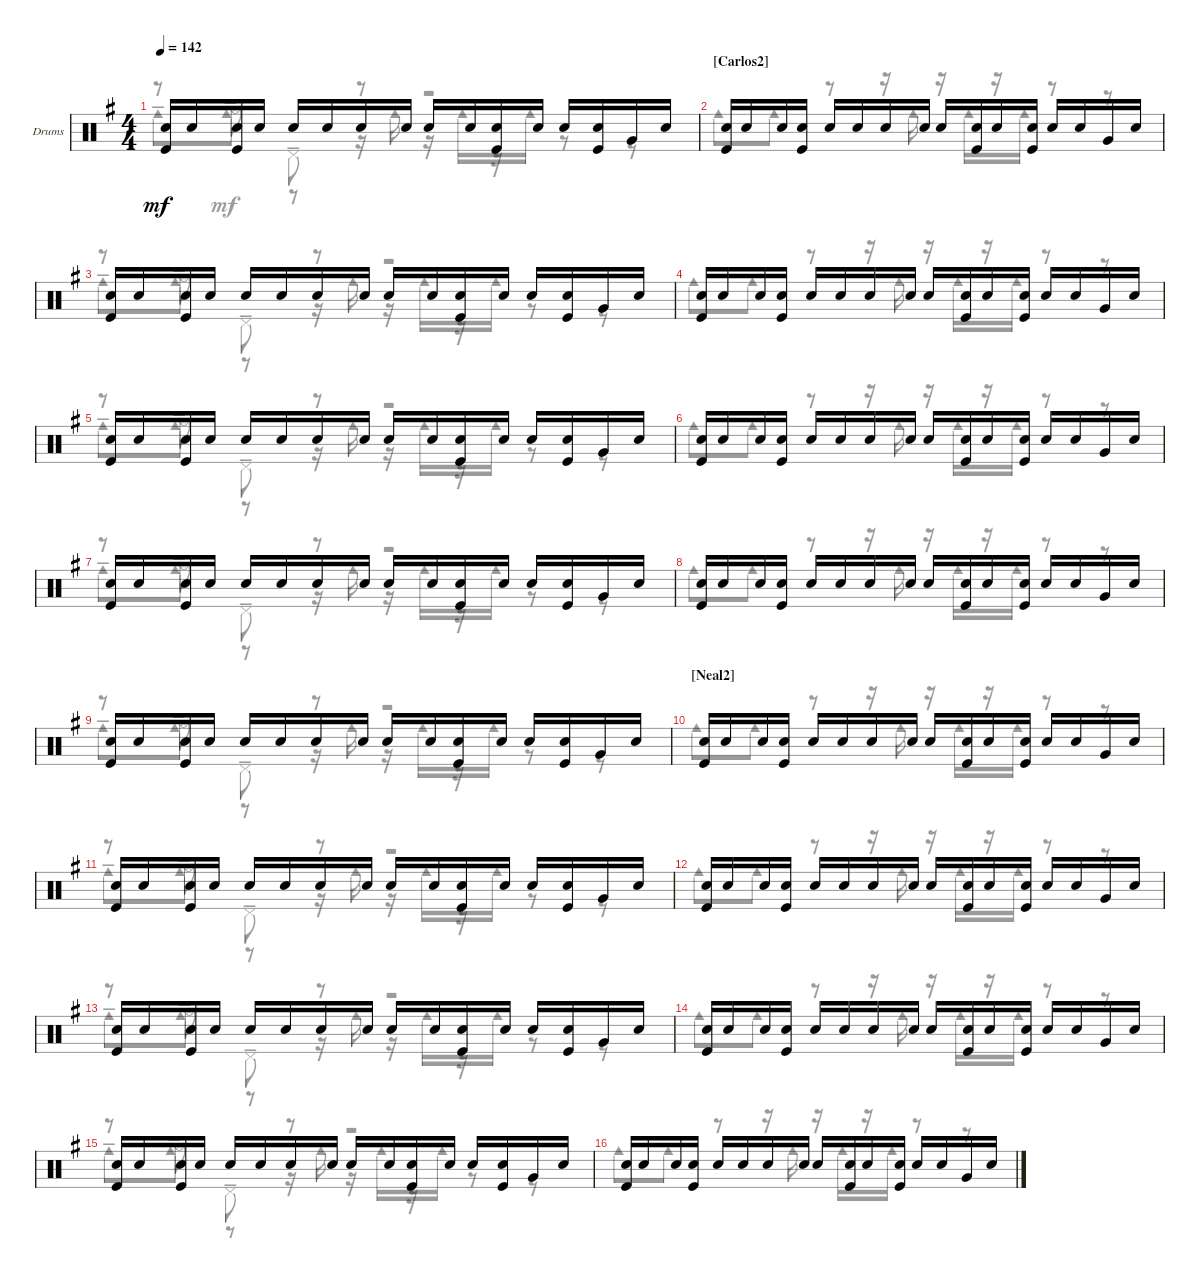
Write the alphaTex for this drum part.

\bracketExtendMode groupsimilarinstruments
\firstSystemTrackNameOrientation horizontal
\otherSystemsTrackNameOrientation horizontal
\track ("Drumkit" "Drums") {instrument percussion}
\staff {score}
\articulation defaults
\voice
\ts (4 4)
\tempo 142
\clef neutral
\ks eminor
("Kick (hit)" "Snare (hit) 2").16{dy mf} "Snare (hit) 2".16 ("Kick (hit)" "Snare (hit) 2").16 "Snare (hit) 2".16 "Snare (hit) 2".16 "Snare (hit) 2".16 "Snare (hit) 2".16 "Snare (hit) 2".16 "Snare (hit) 2".16 "Snare (hit) 2".16 ("Snare (hit) 2" "Kick (hit)").16 "Snare (hit) 2".16 "Snare (hit) 2".16 ("Snare (hit) 2" "Kick (hit)").16 "Very Low Tom (hit)".16 "Snare (hit) 2".16 |
\section ("" "[Carlos2] ")
("Kick (hit)" "Snare (hit) 2").16 "Snare (hit) 2".16 "Snare (hit) 2".16 ("Snare (hit) 2" "Kick (hit)").16 "Snare (hit) 2".16 "Snare (hit) 2".16 "Snare (hit) 2".16 "Snare (hit) 2".16 "Snare (hit) 2".16 ("Kick (hit)" "Snare (hit) 2").16 "Snare (hit) 2".16 ("Kick (hit)" "Snare (hit) 2").16 "Snare (hit) 2".16 "Snare (hit) 2".16 "Very Low Tom (hit)".16 "Snare (hit) 2".16 |
("Kick (hit)" "Snare (hit) 2").16 "Snare (hit) 2".16 ("Kick (hit)" "Snare (hit) 2").16 "Snare (hit) 2".16 "Snare (hit) 2".16 "Snare (hit) 2".16 "Snare (hit) 2".16 "Snare (hit) 2".16 "Snare (hit) 2".16 "Snare (hit) 2".16 ("Snare (hit) 2" "Kick (hit)").16 "Snare (hit) 2".16 "Snare (hit) 2".16 ("Snare (hit) 2" "Kick (hit)").16 "Very Low Tom (hit)".16 "Snare (hit) 2".16 |
("Kick (hit)" "Snare (hit) 2").16 "Snare (hit) 2".16 "Snare (hit) 2".16 ("Snare (hit) 2" "Kick (hit)").16 "Snare (hit) 2".16 "Snare (hit) 2".16 "Snare (hit) 2".16 "Snare (hit) 2".16 "Snare (hit) 2".16 ("Kick (hit)" "Snare (hit) 2").16 "Snare (hit) 2".16 ("Kick (hit)" "Snare (hit) 2").16 "Snare (hit) 2".16 "Snare (hit) 2".16 "Very Low Tom (hit)".16 "Snare (hit) 2".16 |
("Kick (hit)" "Snare (hit) 2").16 "Snare (hit) 2".16 ("Kick (hit)" "Snare (hit) 2").16 "Snare (hit) 2".16 "Snare (hit) 2".16 "Snare (hit) 2".16 "Snare (hit) 2".16 "Snare (hit) 2".16 "Snare (hit) 2".16 "Snare (hit) 2".16 ("Snare (hit) 2" "Kick (hit)").16 "Snare (hit) 2".16 "Snare (hit) 2".16 ("Snare (hit) 2" "Kick (hit)").16 "Very Low Tom (hit)".16 "Snare (hit) 2".16 |
("Kick (hit)" "Snare (hit) 2").16 "Snare (hit) 2".16 "Snare (hit) 2".16 ("Snare (hit) 2" "Kick (hit)").16 "Snare (hit) 2".16 "Snare (hit) 2".16 "Snare (hit) 2".16 "Snare (hit) 2".16 "Snare (hit) 2".16 ("Kick (hit)" "Snare (hit) 2").16 "Snare (hit) 2".16 ("Kick (hit)" "Snare (hit) 2").16 "Snare (hit) 2".16 "Snare (hit) 2".16 "Very Low Tom (hit)".16 "Snare (hit) 2".16 |
("Kick (hit)" "Snare (hit) 2").16 "Snare (hit) 2".16 ("Kick (hit)" "Snare (hit) 2").16 "Snare (hit) 2".16 "Snare (hit) 2".16 "Snare (hit) 2".16 "Snare (hit) 2".16 "Snare (hit) 2".16 "Snare (hit) 2".16 "Snare (hit) 2".16 ("Snare (hit) 2" "Kick (hit)").16 "Snare (hit) 2".16 "Snare (hit) 2".16 ("Snare (hit) 2" "Kick (hit)").16 "Very Low Tom (hit)".16 "Snare (hit) 2".16 |
("Kick (hit)" "Snare (hit) 2").16 "Snare (hit) 2".16 "Snare (hit) 2".16 ("Snare (hit) 2" "Kick (hit)").16 "Snare (hit) 2".16 "Snare (hit) 2".16 "Snare (hit) 2".16 "Snare (hit) 2".16 "Snare (hit) 2".16 ("Kick (hit)" "Snare (hit) 2").16 "Snare (hit) 2".16 ("Kick (hit)" "Snare (hit) 2").16 "Snare (hit) 2".16 "Snare (hit) 2".16 "Very Low Tom (hit)".16 "Snare (hit) 2".16 |
("Kick (hit)" "Snare (hit) 2").16 "Snare (hit) 2".16 ("Kick (hit)" "Snare (hit) 2").16 "Snare (hit) 2".16 "Snare (hit) 2".16 "Snare (hit) 2".16 "Snare (hit) 2".16 "Snare (hit) 2".16 "Snare (hit) 2".16 "Snare (hit) 2".16 ("Snare (hit) 2" "Kick (hit)").16 "Snare (hit) 2".16 "Snare (hit) 2".16 ("Snare (hit) 2" "Kick (hit)").16 "Very Low Tom (hit)".16 "Snare (hit) 2".16 |
\section ("" "[Neal2]")
("Kick (hit)" "Snare (hit) 2").16 "Snare (hit) 2".16 "Snare (hit) 2".16 ("Snare (hit) 2" "Kick (hit)").16 "Snare (hit) 2".16 "Snare (hit) 2".16 "Snare (hit) 2".16 "Snare (hit) 2".16 "Snare (hit) 2".16 ("Kick (hit)" "Snare (hit) 2").16 "Snare (hit) 2".16 ("Kick (hit)" "Snare (hit) 2").16 "Snare (hit) 2".16 "Snare (hit) 2".16 "Very Low Tom (hit)".16 "Snare (hit) 2".16 |
("Kick (hit)" "Snare (hit) 2").16 "Snare (hit) 2".16 ("Kick (hit)" "Snare (hit) 2").16 "Snare (hit) 2".16 "Snare (hit) 2".16 "Snare (hit) 2".16 "Snare (hit) 2".16 "Snare (hit) 2".16 "Snare (hit) 2".16 "Snare (hit) 2".16 ("Snare (hit) 2" "Kick (hit)").16 "Snare (hit) 2".16 "Snare (hit) 2".16 ("Snare (hit) 2" "Kick (hit)").16 "Very Low Tom (hit)".16 "Snare (hit) 2".16 |
("Kick (hit)" "Snare (hit) 2").16 "Snare (hit) 2".16 "Snare (hit) 2".16 ("Snare (hit) 2" "Kick (hit)").16 "Snare (hit) 2".16 "Snare (hit) 2".16 "Snare (hit) 2".16 "Snare (hit) 2".16 "Snare (hit) 2".16 ("Kick (hit)" "Snare (hit) 2").16 "Snare (hit) 2".16 ("Kick (hit)" "Snare (hit) 2").16 "Snare (hit) 2".16 "Snare (hit) 2".16 "Very Low Tom (hit)".16 "Snare (hit) 2".16 |
("Kick (hit)" "Snare (hit) 2").16 "Snare (hit) 2".16 ("Kick (hit)" "Snare (hit) 2").16 "Snare (hit) 2".16 "Snare (hit) 2".16 "Snare (hit) 2".16 "Snare (hit) 2".16 "Snare (hit) 2".16 "Snare (hit) 2".16 "Snare (hit) 2".16 ("Snare (hit) 2" "Kick (hit)").16 "Snare (hit) 2".16 "Snare (hit) 2".16 ("Snare (hit) 2" "Kick (hit)").16 "Very Low Tom (hit)".16 "Snare (hit) 2".16 |
("Kick (hit)" "Snare (hit) 2").16 "Snare (hit) 2".16 "Snare (hit) 2".16 ("Snare (hit) 2" "Kick (hit)").16 "Snare (hit) 2".16 "Snare (hit) 2".16 "Snare (hit) 2".16 "Snare (hit) 2".16 "Snare (hit) 2".16 ("Kick (hit)" "Snare (hit) 2").16 "Snare (hit) 2".16 ("Kick (hit)" "Snare (hit) 2").16 "Snare (hit) 2".16 "Snare (hit) 2".16 "Very Low Tom (hit)".16 "Snare (hit) 2".16 |
("Kick (hit)" "Snare (hit) 2").16 "Snare (hit) 2".16 ("Kick (hit)" "Snare (hit) 2").16 "Snare (hit) 2".16 "Snare (hit) 2".16 "Snare (hit) 2".16 "Snare (hit) 2".16 "Snare (hit) 2".16 "Snare (hit) 2".16 "Snare (hit) 2".16 ("Snare (hit) 2" "Kick (hit)").16 "Snare (hit) 2".16 "Snare (hit) 2".16 ("Snare (hit) 2" "Kick (hit)").16 "Very Low Tom (hit)".16 "Snare (hit) 2".16 |
("Kick (hit)" "Snare (hit) 2").16 "Snare (hit) 2".16 "Snare (hit) 2".16 ("Snare (hit) 2" "Kick (hit)").16 "Snare (hit) 2".16 "Snare (hit) 2".16 "Snare (hit) 2".16 "Snare (hit) 2".16 "Snare (hit) 2".16 ("Kick (hit)" "Snare (hit) 2").16 "Snare (hit) 2".16 ("Kick (hit)" "Snare (hit) 2").16 "Snare (hit) 2".16 "Snare (hit) 2".16 "Very Low Tom (hit)".16 "Snare (hit) 2".16
\voice
\clef neutral
\ottava regular
\simile none
\ks eminor
r.8{dy mf} "Hi-Hat (open)"{ten}.8 "Pedal Hi-Hat (hit)"{ten}.8 r.8 r.2 |
"Cowbell medium (hit)".8 "Cowbell medium (hit)".8 r.8 r.16 "Cowbell medium (hit)".16 r.16 "Cowbell medium (hit)".16 r.16 "Cowbell medium (hit)".16 r.8 r.8 |
r.8 "Hi-Hat (open)"{ten}.8 "Pedal Hi-Hat (hit)"{ten}.8 r.8 r.2 |
"Cowbell medium (hit)".8 "Cowbell medium (hit)".8 r.8 r.16 "Cowbell medium (hit)".16 r.16 "Cowbell medium (hit)".16 r.16 "Cowbell medium (hit)".16 r.8 r.8 |
r.8 "Hi-Hat (open)"{ten}.8 "Pedal Hi-Hat (hit)"{ten}.8 r.8 r.2 |
"Cowbell medium (hit)".8 "Cowbell medium (hit)".8 r.8 r.16 "Cowbell medium (hit)".16 r.16 "Cowbell medium (hit)".16 r.16 "Cowbell medium (hit)".16 r.8 r.8 |
r.8 "Hi-Hat (open)"{ten}.8 "Pedal Hi-Hat (hit)"{ten}.8 r.8 r.2 |
"Cowbell medium (hit)".8 "Cowbell medium (hit)".8 r.8 r.16 "Cowbell medium (hit)".16 r.16 "Cowbell medium (hit)".16 r.16 "Cowbell medium (hit)".16 r.8 r.8 |
r.8 "Hi-Hat (open)"{ten}.8 "Pedal Hi-Hat (hit)"{ten}.8 r.8 r.2 |
"Cowbell medium (hit)".8 "Cowbell medium (hit)".8 r.8 r.16 "Cowbell medium (hit)".16 r.16 "Cowbell medium (hit)".16 r.16 "Cowbell medium (hit)".16 r.8 r.8 |
r.8 "Hi-Hat (open)"{ten}.8 "Pedal Hi-Hat (hit)"{ten}.8 r.8 r.2 |
"Cowbell medium (hit)".8 "Cowbell medium (hit)".8 r.8 r.16 "Cowbell medium (hit)".16 r.16 "Cowbell medium (hit)".16 r.16 "Cowbell medium (hit)".16 r.8 r.8 |
r.8 "Hi-Hat (open)"{ten}.8 "Pedal Hi-Hat (hit)"{ten}.8 r.8 r.2 |
"Cowbell medium (hit)".8 "Cowbell medium (hit)".8 r.8 r.16 "Cowbell medium (hit)".16 r.16 "Cowbell medium (hit)".16 r.16 "Cowbell medium (hit)".16 r.8 r.8 |
r.8 "Hi-Hat (open)"{ten}.8 "Pedal Hi-Hat (hit)"{ten}.8 r.8 r.2 |
"Cowbell medium (hit)".8 "Cowbell medium (hit)".8 r.8 r.16 "Cowbell medium (hit)".16 r.16 "Cowbell medium (hit)".16 r.16 "Cowbell medium (hit)".16 r.8 r.8
\voice
\clef neutral
\ottava regular
\simile none
\ks eminor "Cowbell medium (hit)"{ten}.8{dy mf} "Cowbell medium (hit)"{ten}.8
r.8 r.16 "Cowbell medium (hit)"{ten}.16 r.16 "Cowbell medium (hit)"{ten}.16 r.16 "Cowbell medium (hit)"{ten}.16 r.8 r.8 |
|
"Cowbell medium (hit)"{ten}.8 "Cowbell medium (hit)"{ten}.8 r.8 r.16 "Cowbell medium (hit)"{ten}.16 r.16 "Cowbell medium (hit)"{ten}.16 r.16 "Cowbell medium (hit)"{ten}.16 r.8 r.8 |
|
"Cowbell medium (hit)"{ten}.8 "Cowbell medium (hit)"{ten}.8 r.8 r.16 "Cowbell medium (hit)"{ten}.16 r.16 "Cowbell medium (hit)"{ten}.16 r.16 "Cowbell medium (hit)"{ten}.16 r.8 r.8 |
|
"Cowbell medium (hit)"{ten}.8 "Cowbell medium (hit)"{ten}.8 r.8 r.16 "Cowbell medium (hit)"{ten}.16 r.16 "Cowbell medium (hit)"{ten}.16 r.16 "Cowbell medium (hit)"{ten}.16 r.8 r.8 |
|
"Cowbell medium (hit)"{ten}.8 "Cowbell medium (hit)"{ten}.8 r.8 r.16 "Cowbell medium (hit)"{ten}.16 r.16 "Cowbell medium (hit)"{ten}.16 r.16 "Cowbell medium (hit)"{ten}.16 r.8 r.8 |
|
"Cowbell medium (hit)"{ten}.8 "Cowbell medium (hit)"{ten}.8 r.8 r.16 "Cowbell medium (hit)"{ten}.16 r.16 "Cowbell medium (hit)"{ten}.16 r.16 "Cowbell medium (hit)"{ten}.16 r.8 r.8 |
|
"Cowbell medium (hit)"{ten}.8 "Cowbell medium (hit)"{ten}.8 r.8 r.16 "Cowbell medium (hit)"{ten}.16 r.16 "Cowbell medium (hit)"{ten}.16 r.16 "Cowbell medium (hit)"{ten}.16 r.8 r.8 |
|
"Cowbell medium (hit)"{ten}.8 "Cowbell medium (hit)"{ten}.8 r.8 r.16 "Cowbell medium (hit)"{ten}.16 r.16 "Cowbell medium (hit)"{ten}.16 r.16 "Cowbell medium (hit)"{ten}.16 r.8 r.8 |
